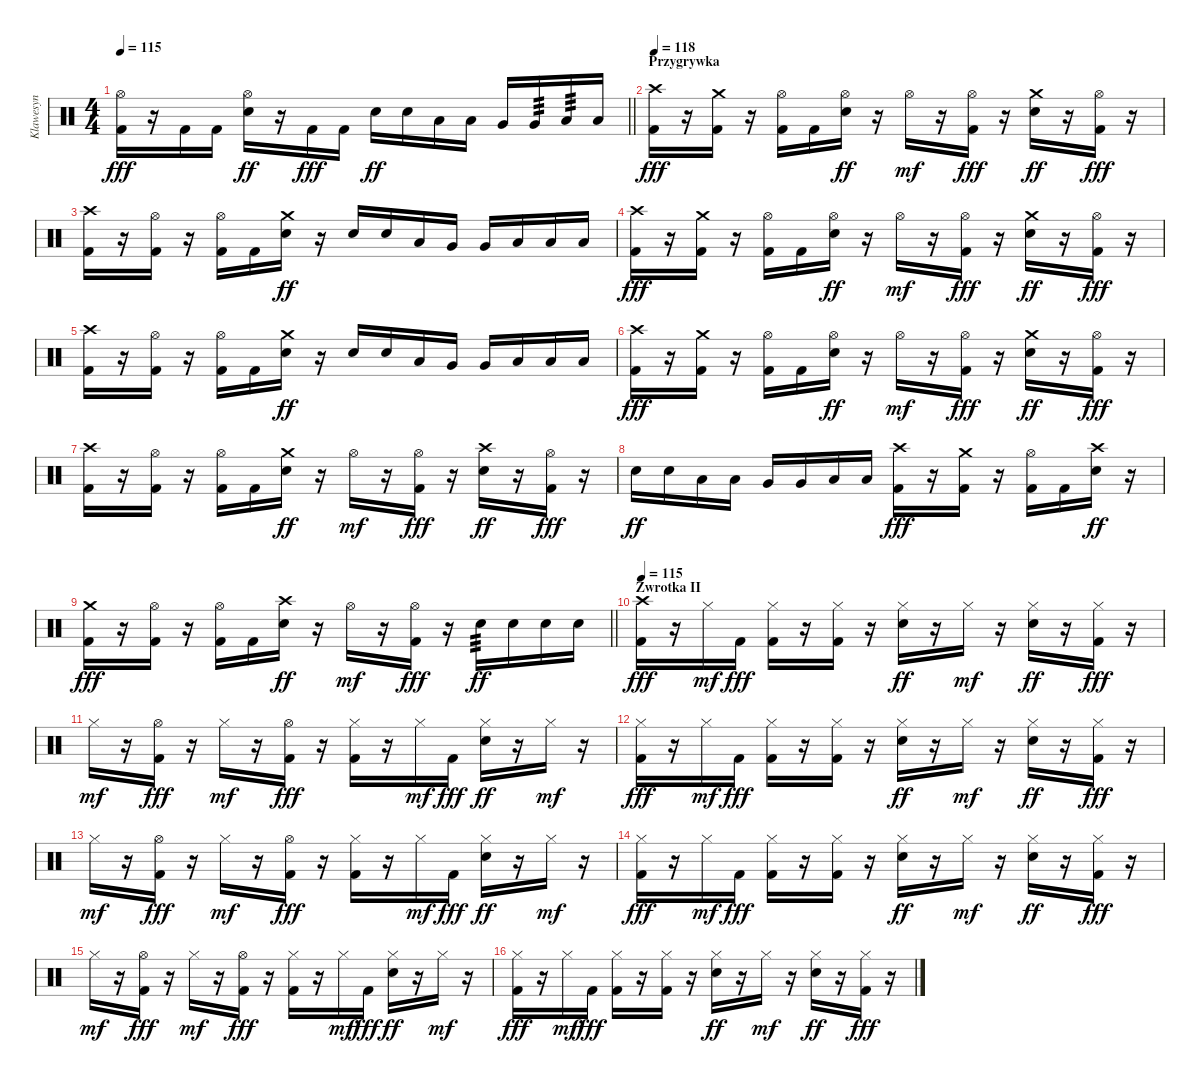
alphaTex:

\track ("Klawesyn" "Klawesyn") {instrument percussion}
\staff {score}
\articulation defaults
\ts (4 4)
\tempo 115
\clef neutral
\barLineRight lightlight
\ks c
("Hi-Hat (open)" "Kick (hit) 2").16{dy fff} r.16 "Kick (hit) 2".16 "Kick (hit) 2".16 ("Hi-Hat (open)" "Electric Snare (hit)").16{dy ff} r.16 "Kick (hit) 2".16{dy fff} "Kick (hit) 2".16 "Electric Snare (hit)".16{dy ff} "Electric Snare (hit)".16 "Low Tom (hit)".16 "Low Tom (hit)".16 "Very Low Tom (hit)".16 "Very Low Tom (hit)".16{tp 3} "Low Floor Tom (hit)".16{tp 3} "Low Floor Tom (hit)".16 |
\section ("" "Przygrywka")
\tempo 118
("Crash high (hit)" "Kick (hit) 2").16{dy fff} r.16 ("Crash medium (hit)" "Kick (hit) 2").16 r.16 ("Hi-Hat (open)" "Kick (hit) 2").16 "Kick (hit) 2".16 ("Hi-Hat (open)" "Electric Snare (hit)").16{dy ff} r.16 "Hi-Hat (open)".16{dy mf} r.16 ("Hi-Hat (open)" "Kick (hit) 2").16{dy fff} r.16 ("Crash medium (hit)" "Electric Snare (hit)").16{dy ff} r.16 ("Hi-Hat (open)" "Kick (hit) 2").16{dy fff} r.16 |
("Crash high (hit)" "Kick (hit) 2").16 r.16 ("Hi-Hat (open)" "Kick (hit) 2").16 r.16 ("Hi-Hat (open)" "Kick (hit) 2").16 "Kick (hit) 2".16 ("Crash medium (hit)" "Electric Snare (hit)").16{dy ff} r.16 "Electric Snare (hit)".16 "Electric Snare (hit)".16 "Low Tom (hit)".16 "Very Low Tom (hit)".16 "Very Low Tom (hit)".16 "Low Floor Tom (hit)".16 "Low Floor Tom (hit)".16 "Low Floor Tom (hit)".16 |
("Crash high (hit)" "Kick (hit) 2").16{dy fff} r.16 ("Crash medium (hit)" "Kick (hit) 2").16 r.16 ("Hi-Hat (open)" "Kick (hit) 2").16 "Kick (hit) 2".16 ("Hi-Hat (open)" "Electric Snare (hit)").16{dy ff} r.16 "Hi-Hat (open)".16{dy mf} r.16 ("Hi-Hat (open)" "Kick (hit) 2").16{dy fff} r.16 ("Crash medium (hit)" "Electric Snare (hit)").16{dy ff} r.16 ("Hi-Hat (open)" "Kick (hit) 2").16{dy fff} r.16 |
("Crash high (hit)" "Kick (hit) 2").16 r.16 ("Hi-Hat (open)" "Kick (hit) 2").16 r.16 ("Hi-Hat (open)" "Kick (hit) 2").16 "Kick (hit) 2".16 ("Crash medium (hit)" "Electric Snare (hit)").16{dy ff} r.16 "Electric Snare (hit)".16 "Electric Snare (hit)".16 "Low Tom (hit)".16 "Very Low Tom (hit)".16 "Very Low Tom (hit)".16 "Low Floor Tom (hit)".16 "Low Floor Tom (hit)".16 "Low Floor Tom (hit)".16 |
("Crash high (hit)" "Kick (hit) 2").16{dy fff} r.16 ("Crash medium (hit)" "Kick (hit) 2").16 r.16 ("Hi-Hat (open)" "Kick (hit) 2").16 "Kick (hit) 2".16 ("Hi-Hat (open)" "Electric Snare (hit)").16{dy ff} r.16 "Hi-Hat (open)".16{dy mf} r.16 ("Hi-Hat (open)" "Kick (hit) 2").16{dy fff} r.16 ("Crash medium (hit)" "Electric Snare (hit)").16{dy ff} r.16 ("Hi-Hat (open)" "Kick (hit) 2").16{dy fff} r.16 |
("Crash high (hit)" "Kick (hit) 2").16 r.16 ("Hi-Hat (open)" "Kick (hit) 2").16 r.16 ("Hi-Hat (open)" "Kick (hit) 2").16 "Kick (hit) 2".16 ("Crash medium (hit)" "Electric Snare (hit)").16{dy ff} r.16 "Hi-Hat (open)".16{dy mf} r.16 ("Hi-Hat (open)" "Kick (hit) 2").16{dy fff} r.16 ("Crash high (hit)" "Electric Snare (hit)").16{dy ff} r.16 ("Hi-Hat (open)" "Kick (hit) 2").16{dy fff} r.16 |
"Electric Snare (hit)".16{dy ff} "Electric Snare (hit)".16 "Low Tom (hit)".16 "Low Tom (hit)".16 "Very Low Tom (hit)".16 "Very Low Tom (hit)".16 "Low Floor Tom (hit)".16 "Low Floor Tom (hit)".16 ("Crash high (hit)" "Kick (hit) 2").16{dy fff} r.16 ("Crash medium (hit)" "Kick (hit) 2").16 r.16 ("Hi-Hat (open)" "Kick (hit) 2").16 "Kick (hit) 2".16 ("Crash high (hit)" "Electric Snare (hit)").16{dy ff} r.16 |
\barLineRight lightlight
("Crash medium (hit)" "Kick (hit) 2").16{dy fff} r.16 ("Hi-Hat (open)" "Kick (hit) 2").16 r.16 ("Hi-Hat (open)" "Kick (hit) 2").16 "Kick (hit) 2".16 ("Crash high (hit)" "Electric Snare (hit)").16{dy ff} r.16 "Hi-Hat (open)".16{dy mf} r.16 ("Hi-Hat (open)" "Kick (hit) 2").16{dy fff} r.16 "Electric Snare (hit)".16{tp 3 dy ff} "Electric Snare (hit)".16 "Electric Snare (hit)".16 "Electric Snare (hit)".16 |
\section ("" "Zwrotka II")
\tempo 115
("Crash high (hit)" "Kick (hit) 2").16{dy fff} r.16 "Hi-Hat (closed)".16{dy mf} "Kick (hit) 2".16{dy fff} ("Hi-Hat (closed)" "Kick (hit) 2").16 r.16 ("Hi-Hat (closed)" "Kick (hit) 2").16 r.16 ("Hi-Hat (closed)" "Electric Snare (hit)").16{dy ff} r.16 "Hi-Hat (closed)".16{dy mf} r.16 ("Hi-Hat (closed)" "Electric Snare (hit)").16{dy ff} r.16 ("Hi-Hat (closed)" "Kick (hit) 2").16{dy fff} r.16 |
"Hi-Hat (closed)".16{dy mf} r.16 ("Hi-Hat (open)" "Kick (hit) 2").16{dy fff} r.16 "Hi-Hat (closed)".16{dy mf} r.16 ("Hi-Hat (open)" "Kick (hit) 2").16{dy fff} r.16 ("Hi-Hat (closed)" "Kick (hit) 2").16 r.16 "Hi-Hat (closed)".16{dy mf} "Kick (hit) 2".16{dy fff} ("Hi-Hat (closed)" "Electric Snare (hit)").16{dy ff} r.16 "Hi-Hat (closed)".16{dy mf} r.16 |
("Hi-Hat (closed)" "Kick (hit) 2").16{dy fff} r.16 "Hi-Hat (closed)".16{dy mf} "Kick (hit) 2".16{dy fff} ("Hi-Hat (closed)" "Kick (hit) 2").16 r.16 ("Hi-Hat (closed)" "Kick (hit) 2").16 r.16 ("Hi-Hat (closed)" "Electric Snare (hit)").16{dy ff} r.16 "Hi-Hat (closed)".16{dy mf} r.16 ("Hi-Hat (closed)" "Electric Snare (hit)").16{dy ff} r.16 ("Hi-Hat (closed)" "Kick (hit) 2").16{dy fff} r.16 |
"Hi-Hat (closed)".16{dy mf} r.16 ("Hi-Hat (open)" "Kick (hit) 2").16{dy fff} r.16 "Hi-Hat (closed)".16{dy mf} r.16 ("Hi-Hat (open)" "Kick (hit) 2").16{dy fff} r.16 ("Hi-Hat (closed)" "Kick (hit) 2").16 r.16 "Hi-Hat (closed)".16{dy mf} "Kick (hit) 2".16{dy fff} ("Hi-Hat (closed)" "Electric Snare (hit)").16{dy ff} r.16 "Hi-Hat (closed)".16{dy mf} r.16 |
("Hi-Hat (closed)" "Kick (hit) 2").16{dy fff} r.16 "Hi-Hat (closed)".16{dy mf} "Kick (hit) 2".16{dy fff} ("Hi-Hat (closed)" "Kick (hit) 2").16 r.16 ("Hi-Hat (closed)" "Kick (hit) 2").16 r.16 ("Hi-Hat (closed)" "Electric Snare (hit)").16{dy ff} r.16 "Hi-Hat (closed)".16{dy mf} r.16 ("Hi-Hat (closed)" "Electric Snare (hit)").16{dy ff} r.16 ("Hi-Hat (closed)" "Kick (hit) 2").16{dy fff} r.16 |
"Hi-Hat (closed)".16{dy mf} r.16 ("Hi-Hat (open)" "Kick (hit) 2").16{dy fff} r.16 "Hi-Hat (closed)".16{dy mf} r.16 ("Hi-Hat (open)" "Kick (hit) 2").16{dy fff} r.16 ("Hi-Hat (closed)" "Kick (hit) 2").16 r.16 "Hi-Hat (closed)".16{dy mf} "Kick (hit) 2".16{dy fff} ("Hi-Hat (closed)" "Electric Snare (hit)").16{dy ff} r.16 "Hi-Hat (closed)".16{dy mf} r.16 |
("Hi-Hat (closed)" "Kick (hit) 2").16{dy fff} r.16 "Hi-Hat (closed)".16{dy mf} "Kick (hit) 2".16{dy fff} ("Hi-Hat (closed)" "Kick (hit) 2").16 r.16 ("Hi-Hat (closed)" "Kick (hit) 2").16 r.16 ("Hi-Hat (closed)" "Electric Snare (hit)").16{dy ff} r.16 "Hi-Hat (closed)".16{dy mf} r.16 ("Hi-Hat (closed)" "Electric Snare (hit)").16{dy ff} r.16 ("Hi-Hat (closed)" "Kick (hit) 2").16{dy fff} r.16
